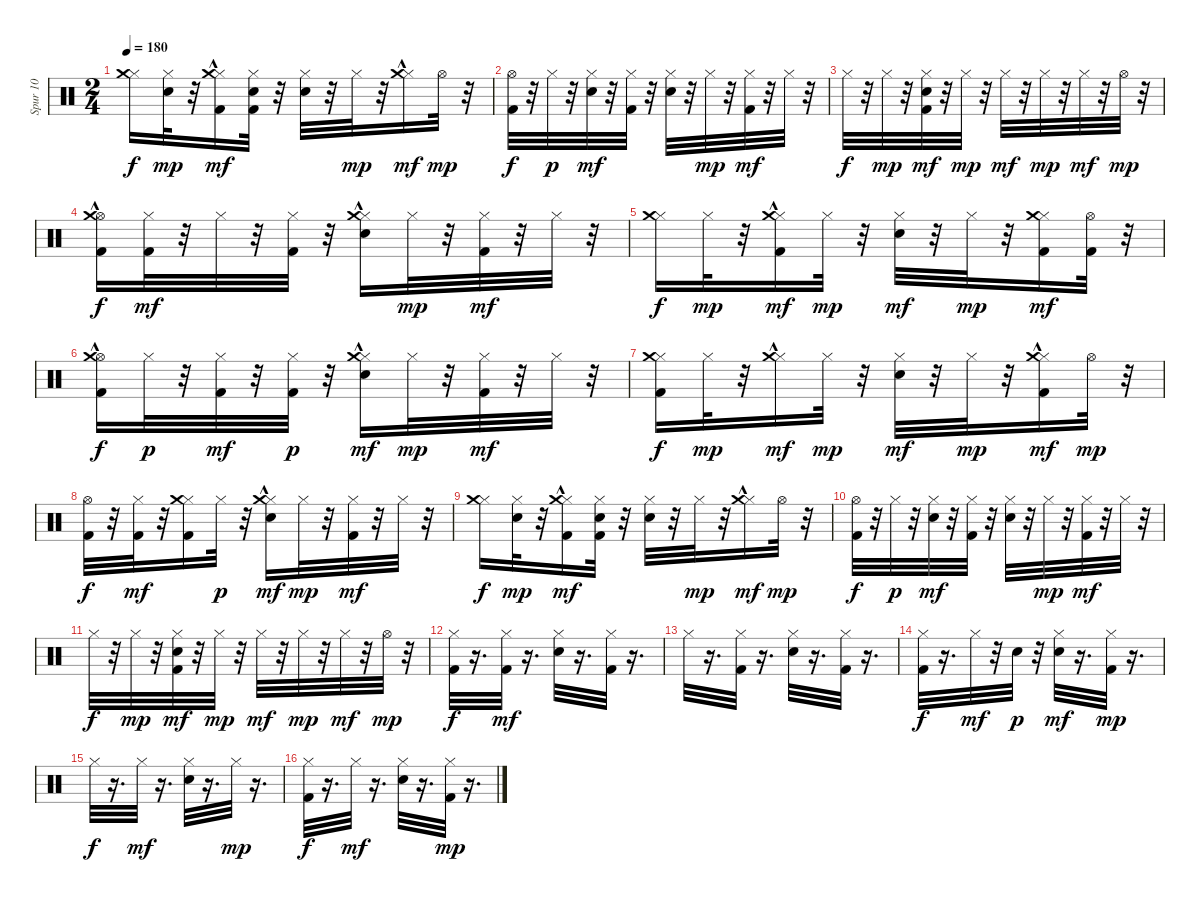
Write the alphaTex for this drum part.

\track ("Spur 10" "Spur 10") {instrument percussion}
\staff {score}
\articulation defaults
\ts (2 4)
\tempo 180
\clef neutral
\ks c
("Hi-Hat (closed)" "Crash medium (hit)").16{dy f} ("Electric Snare (hit)" "Hi-Hat (closed)").32{dy mp} r.32 ("Hi-Hat (closed)" "Crash medium (hit)"{hac} "Kick (hit) 2").16{dy mf} ("Electric Snare (hit)" "Hi-Hat (closed)" "Kick (hit) 2").32 r.32 ("Electric Snare (hit)" "Hi-Hat (closed)").32 r.32 "Hi-Hat (closed)".32{dy mp} r.32 ("Hi-Hat (closed)" "Crash medium (hit)"{hac}).16{dy mf} "Hi-Hat (open)".32{dy mp} r.32 |
("Hi-Hat (open)" "Kick (hit) 2").32{dy f} r.32 "Hi-Hat (closed)".32{dy p} r.32 ("Electric Snare (hit)" "Hi-Hat (closed)").32{dy mf} r.32 ("Hi-Hat (closed)" "Kick (hit) 2").32 r.32 ("Electric Snare (hit)" "Hi-Hat (closed)").32 r.32 "Hi-Hat (closed)".32{dy mp} r.32 ("Hi-Hat (closed)" "Kick (hit) 2").32{dy mf} r.32 "Hi-Hat (closed)".32 r.32 |
"Hi-Hat (closed)".32{dy f} r.32 "Hi-Hat (closed)".32{dy mp} r.32 ("Electric Snare (hit)" "Hi-Hat (closed)" "Kick (hit) 2").32{dy mf} r.32 "Hi-Hat (closed)".32{dy mp} r.32 "Hi-Hat (closed)".32{dy mf} r.32 "Hi-Hat (closed)".32{dy mp} r.32 "Hi-Hat (closed)".32{dy mf} r.32 "Hi-Hat (open)".32{dy mp} r.32 |
("Hi-Hat (open)" "Crash medium (hit)"{hac} "Kick (hit) 2").16{dy f} ("Hi-Hat (closed)" "Kick (hit) 2").32{dy mf} r.32 "Hi-Hat (closed)".32 r.32 ("Hi-Hat (closed)" "Kick (hit) 2").32 r.32 ("Electric Snare (hit)" "Hi-Hat (closed)" "Crash medium (hit)"{hac}).16 "Hi-Hat (closed)".32{dy mp} r.32 ("Hi-Hat (closed)" "Kick (hit) 2").32{dy mf} r.32 "Hi-Hat (closed)".32 r.32 |
("Hi-Hat (closed)" "Crash medium (hit)").16{dy f} "Hi-Hat (closed)".32{dy mp} r.32 ("Hi-Hat (closed)" "Crash medium (hit)"{hac} "Kick (hit) 2").16{dy mf} "Hi-Hat (closed)".32{dy mp} r.32 ("Electric Snare (hit)" "Hi-Hat (closed)").32{dy mf} r.32 "Hi-Hat (closed)".32{dy mp} r.32 ("Hi-Hat (closed)" "Crash medium (hit)" "Kick (hit) 2").16{dy mf} ("Hi-Hat (open)" "Kick (hit) 2").32 r.32 |
("Hi-Hat (open)" "Crash medium (hit)"{hac} "Kick (hit) 2").16{dy f} "Hi-Hat (closed)".32{dy p} r.32 ("Hi-Hat (closed)" "Kick (hit) 2").32{dy mf} r.32 ("Hi-Hat (closed)" "Kick (hit) 2").32{dy p} r.32 ("Electric Snare (hit)" "Hi-Hat (closed)" "Crash medium (hit)"{hac}).16{dy mf} "Hi-Hat (closed)".32{dy mp} r.32 ("Hi-Hat (closed)" "Kick (hit) 2").32{dy mf} r.32 "Hi-Hat (closed)".32 r.32 |
("Hi-Hat (closed)" "Crash medium (hit)" "Kick (hit) 2").16{dy f} "Hi-Hat (closed)".32{dy mp} r.32 ("Hi-Hat (closed)" "Crash medium (hit)"{hac}).16{dy mf} "Hi-Hat (closed)".32{dy mp} r.32 ("Electric Snare (hit)" "Hi-Hat (closed)").32{dy mf} r.32 "Hi-Hat (closed)".32{dy mp} r.32 ("Hi-Hat (closed)" "Crash medium (hit)"{hac} "Kick (hit) 2").16{dy mf} "Hi-Hat (open)".32{dy mp} r.32 |
("Hi-Hat (open)" "Kick (hit) 2").32{dy f} r.32 ("Hi-Hat (closed)" "Kick (hit) 2").32{dy mf} r.32 ("Hi-Hat (closed)" "Crash medium (hit)" "Kick (hit) 2").16 "Hi-Hat (closed)".32{dy p} r.32 ("Electric Snare (hit)" "Hi-Hat (closed)" "Crash medium (hit)"{hac}).16{dy mf} "Hi-Hat (closed)".32{dy mp} r.32 ("Hi-Hat (closed)" "Kick (hit) 2").32{dy mf} r.32 "Hi-Hat (closed)".32 r.32 |
("Hi-Hat (closed)" "Crash medium (hit)").16{dy f} ("Electric Snare (hit)" "Hi-Hat (closed)").32{dy mp} r.32 ("Hi-Hat (closed)" "Crash medium (hit)"{hac} "Kick (hit) 2").16{dy mf} ("Electric Snare (hit)" "Hi-Hat (closed)" "Kick (hit) 2").32 r.32 ("Electric Snare (hit)" "Hi-Hat (closed)").32 r.32 "Hi-Hat (closed)".32{dy mp} r.32 ("Hi-Hat (closed)" "Crash medium (hit)"{hac}).16{dy mf} "Hi-Hat (open)".32{dy mp} r.32 |
("Hi-Hat (open)" "Kick (hit) 2").32{dy f} r.32 "Hi-Hat (closed)".32{dy p} r.32 ("Electric Snare (hit)" "Hi-Hat (closed)").32{dy mf} r.32 ("Hi-Hat (closed)" "Kick (hit) 2").32 r.32 ("Electric Snare (hit)" "Hi-Hat (closed)").32 r.32 "Hi-Hat (closed)".32{dy mp} r.32 ("Hi-Hat (closed)" "Kick (hit) 2").32{dy mf} r.32 "Hi-Hat (closed)".32 r.32 |
"Hi-Hat (closed)".32{dy f} r.32 "Hi-Hat (closed)".32{dy mp} r.32 ("Electric Snare (hit)" "Hi-Hat (closed)" "Kick (hit) 2").32{dy mf} r.32 "Hi-Hat (closed)".32{dy mp} r.32 "Hi-Hat (closed)".32{dy mf} r.32 "Hi-Hat (closed)".32{dy mp} r.32 "Hi-Hat (closed)".32{dy mf} r.32 "Hi-Hat (open)".32{dy mp} r.32 |
("Hi-Hat (closed)" "Kick (hit) 2").32{dy f} r.16{d} ("Hi-Hat (closed)" "Kick (hit) 2").32{dy mf} r.16{d} ("Electric Snare (hit)" "Hi-Hat (closed)").32 r.16{d} ("Hi-Hat (closed)" "Kick (hit) 2").32 r.16{d} |
"Hi-Hat (closed)".32 r.16{d} ("Hi-Hat (closed)" "Kick (hit) 2").32 r.16{d} ("Electric Snare (hit)" "Hi-Hat (closed)").32 r.16{d} ("Hi-Hat (closed)" "Kick (hit) 2").32 r.16{d} |
("Hi-Hat (closed)" "Kick (hit) 2").32{dy f} r.16{d} "Hi-Hat (closed)".32{dy mf} r.32 "Electric Snare (hit)".32{dy p} r.32 ("Electric Snare (hit)" "Hi-Hat (closed)").32{dy mf} r.16{d} ("Hi-Hat (closed)" "Kick (hit) 2").32{dy mp} r.16{d} |
"Hi-Hat (closed)".32{dy f} r.16{d} "Hi-Hat (closed)".32{dy mf} r.16{d} ("Electric Snare (hit)" "Hi-Hat (closed)").32 r.16{d} "Hi-Hat (closed)".32{dy mp} r.16{d} |
("Hi-Hat (closed)" "Kick (hit) 2").32{dy f} r.16{d} "Hi-Hat (closed)".32{dy mf} r.16{d} ("Electric Snare (hit)" "Hi-Hat (closed)").32 r.16{d} ("Hi-Hat (closed)" "Kick (hit) 2").32{dy mp} r.16{d}
